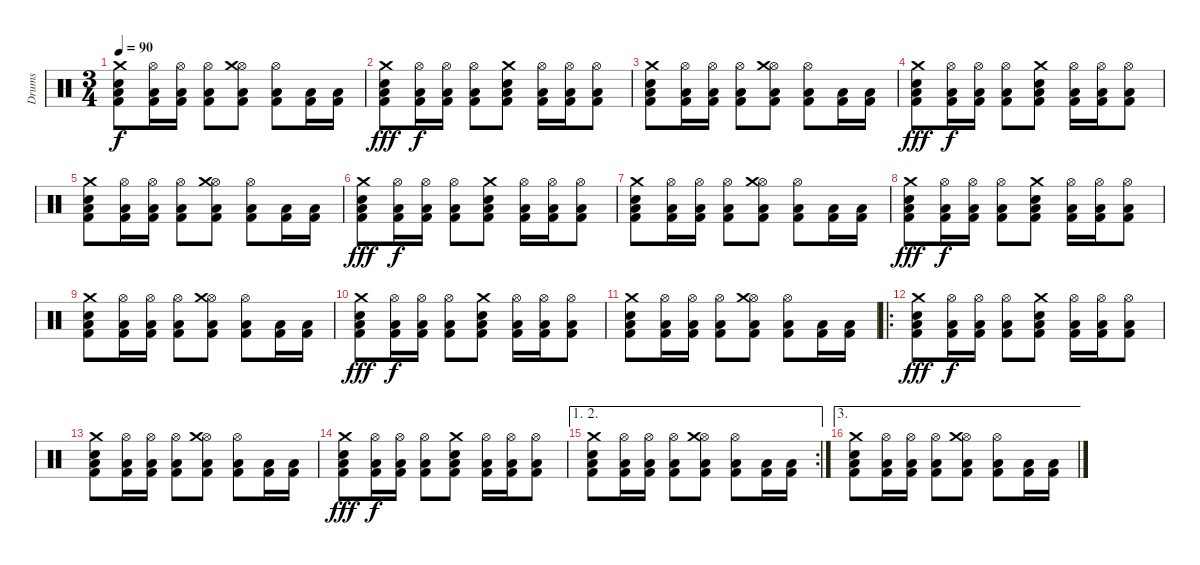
\track ("Drums" "Drums") {instrument percussion}
\staff {score}
\articulation defaults
\ts (3 4)
\tempo 90
\clef neutral
\ks c
("Kick (hit) 2" "Low Floor Tom (hit)" "Electric Snare (hit)" "Crash medium (hit)").8{dy f} ("Kick (hit) 2" "Low Floor Tom (hit)" "Hi-Hat (open)").16 ("Kick (hit) 2" "Low Floor Tom (hit)" "Hi-Hat (open)").16 ("Kick (hit) 2" "Low Floor Tom (hit)" "Hi-Hat (open)").8 ("Kick (hit) 2" "Low Floor Tom (hit)" "Hi-Hat (open)" "Crash medium (hit)").8 ("Kick (hit) 2" "Low Floor Tom (hit)" "Hi-Hat (open)").8 ("Kick (hit) 2" "Low Floor Tom (hit)").16 ("Kick (hit) 2" "Low Floor Tom (hit)").16 |
("Kick (hit) 2" "Low Floor Tom (hit)" "Electric Snare (hit)" "Crash medium (hit)").8{dy fff} ("Kick (hit) 2" "Low Floor Tom (hit)" "Hi-Hat (open)").16{dy f} ("Kick (hit) 2" "Low Floor Tom (hit)" "Hi-Hat (open)").16 ("Kick (hit) 2" "Low Floor Tom (hit)" "Hi-Hat (open)").8 ("Kick (hit) 2" "Low Floor Tom (hit)" "Electric Snare (hit)" "Crash medium (hit)").8 ("Kick (hit) 2" "Low Floor Tom (hit)" "Hi-Hat (open)").16 ("Kick (hit) 2" "Low Floor Tom (hit)" "Hi-Hat (open)").16 ("Kick (hit) 2" "Low Floor Tom (hit)" "Hi-Hat (open)").8 |
("Kick (hit) 2" "Low Floor Tom (hit)" "Electric Snare (hit)" "Crash medium (hit)").8 ("Kick (hit) 2" "Low Floor Tom (hit)" "Hi-Hat (open)").16 ("Kick (hit) 2" "Low Floor Tom (hit)" "Hi-Hat (open)").16 ("Kick (hit) 2" "Low Floor Tom (hit)" "Hi-Hat (open)").8 ("Kick (hit) 2" "Low Floor Tom (hit)" "Hi-Hat (open)" "Crash medium (hit)").8 ("Kick (hit) 2" "Low Floor Tom (hit)" "Hi-Hat (open)").8 ("Kick (hit) 2" "Low Floor Tom (hit)").16 ("Kick (hit) 2" "Low Floor Tom (hit)").16 |
("Kick (hit) 2" "Low Floor Tom (hit)" "Electric Snare (hit)" "Crash medium (hit)").8{dy fff} ("Kick (hit) 2" "Low Floor Tom (hit)" "Hi-Hat (open)").16{dy f} ("Kick (hit) 2" "Low Floor Tom (hit)" "Hi-Hat (open)").16 ("Kick (hit) 2" "Low Floor Tom (hit)" "Hi-Hat (open)").8 ("Kick (hit) 2" "Low Floor Tom (hit)" "Electric Snare (hit)" "Crash medium (hit)").8 ("Kick (hit) 2" "Low Floor Tom (hit)" "Hi-Hat (open)").16 ("Kick (hit) 2" "Low Floor Tom (hit)" "Hi-Hat (open)").16 ("Kick (hit) 2" "Low Floor Tom (hit)" "Hi-Hat (open)").8 |
("Kick (hit) 2" "Low Floor Tom (hit)" "Electric Snare (hit)" "Crash medium (hit)").8 ("Kick (hit) 2" "Low Floor Tom (hit)" "Hi-Hat (open)").16 ("Kick (hit) 2" "Low Floor Tom (hit)" "Hi-Hat (open)").16 ("Kick (hit) 2" "Low Floor Tom (hit)" "Hi-Hat (open)").8 ("Kick (hit) 2" "Low Floor Tom (hit)" "Hi-Hat (open)" "Crash medium (hit)").8 ("Kick (hit) 2" "Low Floor Tom (hit)" "Hi-Hat (open)").8 ("Kick (hit) 2" "Low Floor Tom (hit)").16 ("Kick (hit) 2" "Low Floor Tom (hit)").16 |
("Kick (hit) 2" "Low Floor Tom (hit)" "Electric Snare (hit)" "Crash medium (hit)").8{dy fff} ("Kick (hit) 2" "Low Floor Tom (hit)" "Hi-Hat (open)").16{dy f} ("Kick (hit) 2" "Low Floor Tom (hit)" "Hi-Hat (open)").16 ("Kick (hit) 2" "Low Floor Tom (hit)" "Hi-Hat (open)").8 ("Kick (hit) 2" "Low Floor Tom (hit)" "Electric Snare (hit)" "Crash medium (hit)").8 ("Kick (hit) 2" "Low Floor Tom (hit)" "Hi-Hat (open)").16 ("Kick (hit) 2" "Low Floor Tom (hit)" "Hi-Hat (open)").16 ("Kick (hit) 2" "Low Floor Tom (hit)" "Hi-Hat (open)").8 |
("Kick (hit) 2" "Low Floor Tom (hit)" "Electric Snare (hit)" "Crash medium (hit)").8 ("Kick (hit) 2" "Low Floor Tom (hit)" "Hi-Hat (open)").16 ("Kick (hit) 2" "Low Floor Tom (hit)" "Hi-Hat (open)").16 ("Kick (hit) 2" "Low Floor Tom (hit)" "Hi-Hat (open)").8 ("Kick (hit) 2" "Low Floor Tom (hit)" "Hi-Hat (open)" "Crash medium (hit)").8 ("Kick (hit) 2" "Low Floor Tom (hit)" "Hi-Hat (open)").8 ("Kick (hit) 2" "Low Floor Tom (hit)").16 ("Kick (hit) 2" "Low Floor Tom (hit)").16 |
("Kick (hit) 2" "Low Floor Tom (hit)" "Electric Snare (hit)" "Crash medium (hit)").8{dy fff} ("Kick (hit) 2" "Low Floor Tom (hit)" "Hi-Hat (open)").16{dy f} ("Kick (hit) 2" "Low Floor Tom (hit)" "Hi-Hat (open)").16 ("Kick (hit) 2" "Low Floor Tom (hit)" "Hi-Hat (open)").8 ("Kick (hit) 2" "Low Floor Tom (hit)" "Electric Snare (hit)" "Crash medium (hit)").8 ("Kick (hit) 2" "Low Floor Tom (hit)" "Hi-Hat (open)").16 ("Kick (hit) 2" "Low Floor Tom (hit)" "Hi-Hat (open)").16 ("Kick (hit) 2" "Low Floor Tom (hit)" "Hi-Hat (open)").8 |
("Kick (hit) 2" "Low Floor Tom (hit)" "Electric Snare (hit)" "Crash medium (hit)").8 ("Kick (hit) 2" "Low Floor Tom (hit)" "Hi-Hat (open)").16 ("Kick (hit) 2" "Low Floor Tom (hit)" "Hi-Hat (open)").16 ("Kick (hit) 2" "Low Floor Tom (hit)" "Hi-Hat (open)").8 ("Kick (hit) 2" "Low Floor Tom (hit)" "Hi-Hat (open)" "Crash medium (hit)").8 ("Kick (hit) 2" "Low Floor Tom (hit)" "Hi-Hat (open)").8 ("Kick (hit) 2" "Low Floor Tom (hit)").16 ("Kick (hit) 2" "Low Floor Tom (hit)").16 |
("Kick (hit) 2" "Low Floor Tom (hit)" "Electric Snare (hit)" "Crash medium (hit)").8{dy fff} ("Kick (hit) 2" "Low Floor Tom (hit)" "Hi-Hat (open)").16{dy f} ("Kick (hit) 2" "Low Floor Tom (hit)" "Hi-Hat (open)").16 ("Kick (hit) 2" "Low Floor Tom (hit)" "Hi-Hat (open)").8 ("Kick (hit) 2" "Low Floor Tom (hit)" "Electric Snare (hit)" "Crash medium (hit)").8 ("Kick (hit) 2" "Low Floor Tom (hit)" "Hi-Hat (open)").16 ("Kick (hit) 2" "Low Floor Tom (hit)" "Hi-Hat (open)").16 ("Kick (hit) 2" "Low Floor Tom (hit)" "Hi-Hat (open)").8 |
("Kick (hit) 2" "Low Floor Tom (hit)" "Electric Snare (hit)" "Crash medium (hit)").8 ("Kick (hit) 2" "Low Floor Tom (hit)" "Hi-Hat (open)").16 ("Kick (hit) 2" "Low Floor Tom (hit)" "Hi-Hat (open)").16 ("Kick (hit) 2" "Low Floor Tom (hit)" "Hi-Hat (open)").8 ("Kick (hit) 2" "Low Floor Tom (hit)" "Hi-Hat (open)" "Crash medium (hit)").8 ("Kick (hit) 2" "Low Floor Tom (hit)" "Hi-Hat (open)").8 ("Kick (hit) 2" "Low Floor Tom (hit)").16 ("Kick (hit) 2" "Low Floor Tom (hit)").16 |
\ro
("Kick (hit) 2" "Low Floor Tom (hit)" "Electric Snare (hit)" "Crash medium (hit)").8{dy fff} ("Kick (hit) 2" "Low Floor Tom (hit)" "Hi-Hat (open)").16{dy f} ("Kick (hit) 2" "Low Floor Tom (hit)" "Hi-Hat (open)").16 ("Kick (hit) 2" "Low Floor Tom (hit)" "Hi-Hat (open)").8 ("Kick (hit) 2" "Low Floor Tom (hit)" "Electric Snare (hit)" "Crash medium (hit)").8 ("Kick (hit) 2" "Low Floor Tom (hit)" "Hi-Hat (open)").16 ("Kick (hit) 2" "Low Floor Tom (hit)" "Hi-Hat (open)").16 ("Kick (hit) 2" "Low Floor Tom (hit)" "Hi-Hat (open)").8 |
("Kick (hit) 2" "Low Floor Tom (hit)" "Electric Snare (hit)" "Crash medium (hit)").8 ("Kick (hit) 2" "Low Floor Tom (hit)" "Hi-Hat (open)").16 ("Kick (hit) 2" "Low Floor Tom (hit)" "Hi-Hat (open)").16 ("Kick (hit) 2" "Low Floor Tom (hit)" "Hi-Hat (open)").8 ("Kick (hit) 2" "Low Floor Tom (hit)" "Hi-Hat (open)" "Crash medium (hit)").8 ("Kick (hit) 2" "Low Floor Tom (hit)" "Hi-Hat (open)").8 ("Kick (hit) 2" "Low Floor Tom (hit)").16 ("Kick (hit) 2" "Low Floor Tom (hit)").16 |
("Kick (hit) 2" "Low Floor Tom (hit)" "Electric Snare (hit)" "Crash medium (hit)").8{dy fff} ("Kick (hit) 2" "Low Floor Tom (hit)" "Hi-Hat (open)").16{dy f} ("Kick (hit) 2" "Low Floor Tom (hit)" "Hi-Hat (open)").16 ("Kick (hit) 2" "Low Floor Tom (hit)" "Hi-Hat (open)").8 ("Kick (hit) 2" "Low Floor Tom (hit)" "Electric Snare (hit)" "Crash medium (hit)").8 ("Kick (hit) 2" "Low Floor Tom (hit)" "Hi-Hat (open)").16 ("Kick (hit) 2" "Low Floor Tom (hit)" "Hi-Hat (open)").16 ("Kick (hit) 2" "Low Floor Tom (hit)" "Hi-Hat (open)").8 |
\ae (1 2)
\rc 2
("Kick (hit) 2" "Low Floor Tom (hit)" "Electric Snare (hit)" "Crash medium (hit)").8 ("Kick (hit) 2" "Low Floor Tom (hit)" "Hi-Hat (open)").16 ("Kick (hit) 2" "Low Floor Tom (hit)" "Hi-Hat (open)").16 ("Kick (hit) 2" "Low Floor Tom (hit)" "Hi-Hat (open)").8 ("Kick (hit) 2" "Low Floor Tom (hit)" "Hi-Hat (open)" "Crash medium (hit)").8 ("Kick (hit) 2" "Low Floor Tom (hit)" "Hi-Hat (open)").8 ("Kick (hit) 2" "Low Floor Tom (hit)").16 ("Kick (hit) 2" "Low Floor Tom (hit)").16 |
\ae 3
("Kick (hit) 2" "Low Floor Tom (hit)" "Electric Snare (hit)" "Crash medium (hit)").8 ("Kick (hit) 2" "Low Floor Tom (hit)" "Hi-Hat (open)").16 ("Kick (hit) 2" "Low Floor Tom (hit)" "Hi-Hat (open)").16 ("Kick (hit) 2" "Low Floor Tom (hit)" "Hi-Hat (open)").8 ("Kick (hit) 2" "Low Floor Tom (hit)" "Hi-Hat (open)" "Crash medium (hit)").8 ("Kick (hit) 2" "Low Floor Tom (hit)" "Hi-Hat (open)").8 ("Kick (hit) 2" "Low Floor Tom (hit)").16 ("Kick (hit) 2" "Low Floor Tom (hit)").16
